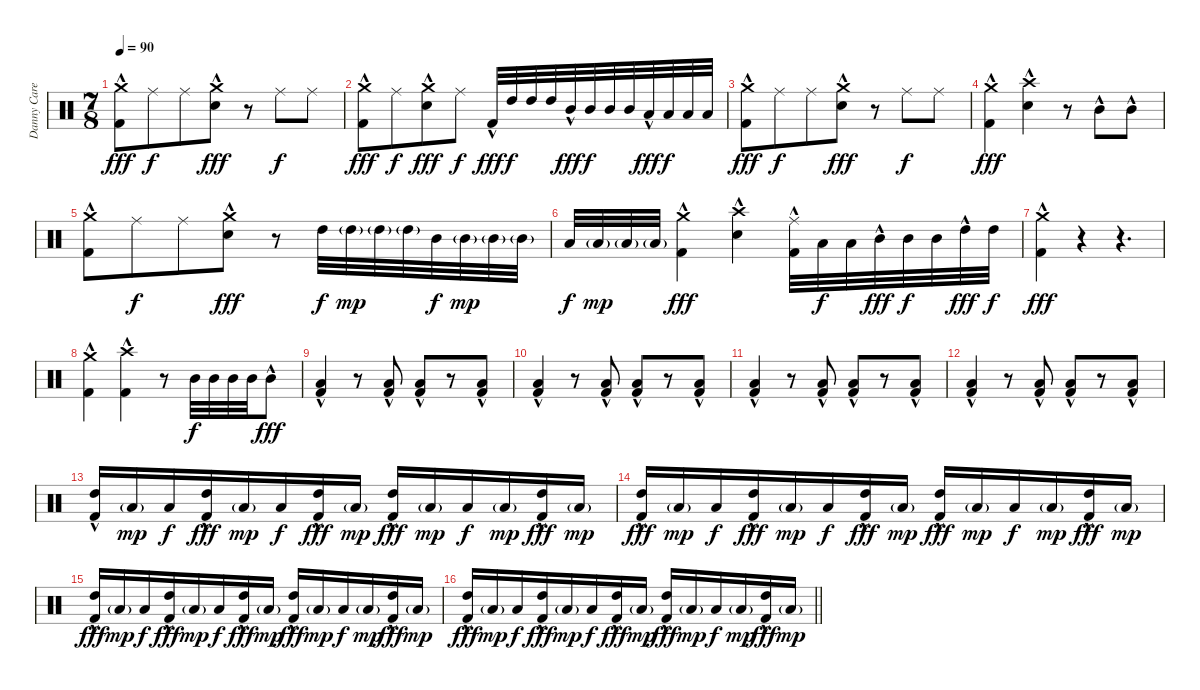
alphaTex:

\track ("Danny Carey" "Danny Care") {instrument percussion}
\staff {score}
\articulation defaults
\ts (7 8)
\tempo 90
\clef neutral
\ks c
("Crash medium (hit)" "Kick (hit) 2"{hac}).8{dy fff} "Ride (middle)".8{dy f} "Ride (middle)".8 ("Crash medium (hit)" "Electric Snare (hit)"{hac}).8{dy fff} r.8 "Ride (middle)".8{dy f} "Ride (middle)".8 |
("Crash medium (hit)" "Kick (hit) 2"{hac}).8{dy fff} "Ride (middle)".8{dy f} ("Crash medium (hit)" "Electric Snare (hit)"{hac}).8{dy fff} "Ride (middle)".8{dy f} "Kick (hit) 2"{hac}.32{dy fff} "High Tom (hit)".32{dy f} "High Tom (hit)".32 "High Tom (hit)".32 "Mid Tom (hit)"{hac}.32{dy fff} "Mid Tom (hit)".32{dy f} "Mid Tom (hit)".32 "Mid Tom (hit)".32 "Low Tom (hit)"{hac}.32{dy fff} "Low Tom (hit)".32{dy f} "Low Tom (hit)".32 "Low Tom (hit)".32 |
("Crash medium (hit)" "Kick (hit) 2"{hac}).8{dy fff} "Ride (middle)".8{dy f} "Ride (middle)".8 ("Crash medium (hit)" "Electric Snare (hit)"{hac}).8{dy fff} r.8 "Ride (middle)".8{dy f} "Ride (middle)".8 |
("Crash medium (hit)" "Kick (hit) 2"{hac}).4{dy fff} ("Crash high (hit)" "Electric Snare (hit)"{hac}).4 r.8 "Mid Tom (hit)"{hac}.8 "Mid Tom (hit)"{hac}.8 |
("Crash medium (hit)" "Kick (hit) 2"{hac}).8 "Ride (middle)".8{dy f} "Ride (middle)".8 ("Crash medium (hit)" "Electric Snare (hit)"{hac}).8{dy fff} r.8 "High Tom (hit)".32{dy f} "High Tom (hit)"{g}.32{dy mp} "High Tom (hit)"{g}.32 "High Tom (hit)"{g}.32 "Mid Tom (hit)".32{dy f} "Mid Tom (hit)"{g}.32{dy mp} "Mid Tom (hit)"{g}.32 "Mid Tom (hit)"{g}.32 |
"Low Tom (hit)".32{dy f} "Low Tom (hit)"{g}.32{dy mp} "Low Tom (hit)"{g}.32 "Low Tom (hit)"{g}.32 ("Crash medium (hit)" "Kick (hit) 2"{hac}).4{dy fff} ("Crash high (hit)" "Electric Snare (hit)"{hac}).4 ("Ride (middle)" "Kick (hit) 2"{hac}).32 "Low Tom (hit)".32{dy f} "Low Tom (hit)".32 "Mid Tom (hit)"{hac}.32{dy fff} "Mid Tom (hit)".32{dy f} "Mid Tom (hit)".32 "High Tom (hit)"{hac}.32{dy fff} "High Tom (hit)".32{dy f} |
("Crash medium (hit)" "Kick (hit) 2"{hac}).4{dy fff} r.4 r.4{d} |
("Crash medium (hit)" "Kick (hit) 2"{hac}).4 ("Crash high (hit)" "Kick (hit) 2"{hac}).4 r.8 "Mid Tom (hit)".32{dy f} "Mid Tom (hit)".32 "Mid Tom (hit)".32 "Mid Tom (hit)".32 "Mid Tom (hit)"{hac}.8{dy fff} |
("Low Floor Tom (hit)"{hac} "Kick (hit) 2"{hac}).4 r.8 ("Low Floor Tom (hit)"{hac} "Kick (hit) 2"{hac}).8 ("Low Floor Tom (hit)"{hac} "Kick (hit) 2"{hac}).8 r.8 ("Low Floor Tom (hit)"{hac} "Kick (hit) 2"{hac}).8 |
("Low Floor Tom (hit)"{hac} "Kick (hit) 2"{hac}).4 r.8 ("Low Floor Tom (hit)"{hac} "Kick (hit) 2"{hac}).8 ("Low Floor Tom (hit)"{hac} "Kick (hit) 2"{hac}).8 r.8 ("Low Floor Tom (hit)"{hac} "Kick (hit) 2"{hac}).8 |
("Low Floor Tom (hit)"{hac} "Kick (hit) 2"{hac}).4 r.8 ("Low Floor Tom (hit)"{hac} "Kick (hit) 2"{hac}).8 ("Low Floor Tom (hit)"{hac} "Kick (hit) 2"{hac}).8 r.8 ("Low Floor Tom (hit)"{hac} "Kick (hit) 2"{hac}).8 |
("Low Floor Tom (hit)"{hac} "Kick (hit) 2"{hac}).4 r.8 ("Low Floor Tom (hit)"{hac} "Kick (hit) 2"{hac}).8 ("Low Floor Tom (hit)"{hac} "Kick (hit) 2"{hac}).8 r.8 ("Low Floor Tom (hit)"{hac} "Kick (hit) 2"{hac}).8 |
("High Tom (hit)"{hac} "Kick (hit) 2"{hac}).16 "Low Tom (hit)"{g}.16{dy mp} "Low Tom (hit)".16{dy f} ("High Tom (hit)"{hac} "Kick (hit) 2"{hac}).16{dy fff} "Low Tom (hit)"{g}.16{dy mp} "Low Tom (hit)".16{dy f} ("High Tom (hit)"{hac} "Kick (hit) 2"{hac}).16{dy fff} "Low Tom (hit)"{g}.16{dy mp} ("High Tom (hit)"{hac} "Kick (hit) 2"{hac}).16{dy fff} "Low Tom (hit)"{g}.16{dy mp} "Low Tom (hit)".16{dy f} "Low Tom (hit)"{g}.16{dy mp} ("High Tom (hit)"{hac} "Kick (hit) 2"{hac}).16{dy fff} "Low Tom (hit)"{g}.16{dy mp} |
("High Tom (hit)"{hac} "Kick (hit) 2"{hac}).16{dy fff} "Low Tom (hit)"{g}.16{dy mp} "Low Tom (hit)".16{dy f} ("High Tom (hit)"{hac} "Kick (hit) 2"{hac}).16{dy fff} "Low Tom (hit)"{g}.16{dy mp} "Low Tom (hit)".16{dy f} ("High Tom (hit)"{hac} "Kick (hit) 2"{hac}).16{dy fff} "Low Tom (hit)"{g}.16{dy mp} ("High Tom (hit)"{hac} "Kick (hit) 2"{hac}).16{dy fff} "Low Tom (hit)"{g}.16{dy mp} "Low Tom (hit)".16{dy f} "Low Tom (hit)"{g}.16{dy mp} ("High Tom (hit)"{hac} "Kick (hit) 2"{hac}).16{dy fff} "Low Tom (hit)"{g}.16{dy mp} |
("High Tom (hit)"{hac} "Kick (hit) 2"{hac}).16{dy fff} "Low Tom (hit)"{g}.16{dy mp} "Low Tom (hit)".16{dy f} ("High Tom (hit)"{hac} "Kick (hit) 2"{hac}).16{dy fff} "Low Tom (hit)"{g}.16{dy mp} "Low Tom (hit)".16{dy f} ("High Tom (hit)"{hac} "Kick (hit) 2"{hac}).16{dy fff} "Low Tom (hit)"{g}.16{dy mp} ("High Tom (hit)"{hac} "Kick (hit) 2"{hac}).16{dy fff} "Low Tom (hit)"{g}.16{dy mp} "Low Tom (hit)".16{dy f} "Low Tom (hit)"{g}.16{dy mp} ("High Tom (hit)"{hac} "Kick (hit) 2"{hac}).16{dy fff} "Low Tom (hit)"{g}.16{dy mp} |
\barLineRight lightlight
("High Tom (hit)"{hac} "Kick (hit) 2"{hac}).16{dy fff} "Low Tom (hit)"{g}.16{dy mp} "Low Tom (hit)".16{dy f} ("High Tom (hit)"{hac} "Kick (hit) 2"{hac}).16{dy fff} "Low Tom (hit)"{g}.16{dy mp} "Low Tom (hit)".16{dy f} ("High Tom (hit)"{hac} "Kick (hit) 2"{hac}).16{dy fff} "Low Tom (hit)"{g}.16{dy mp} ("High Tom (hit)"{hac} "Kick (hit) 2"{hac}).16{dy fff} "Low Tom (hit)"{g}.16{dy mp} "Low Tom (hit)".16{dy f} "Low Tom (hit)"{g}.16{dy mp} ("High Tom (hit)"{hac} "Kick (hit) 2"{hac}).16{dy fff} "Low Tom (hit)"{g}.16{dy mp}
